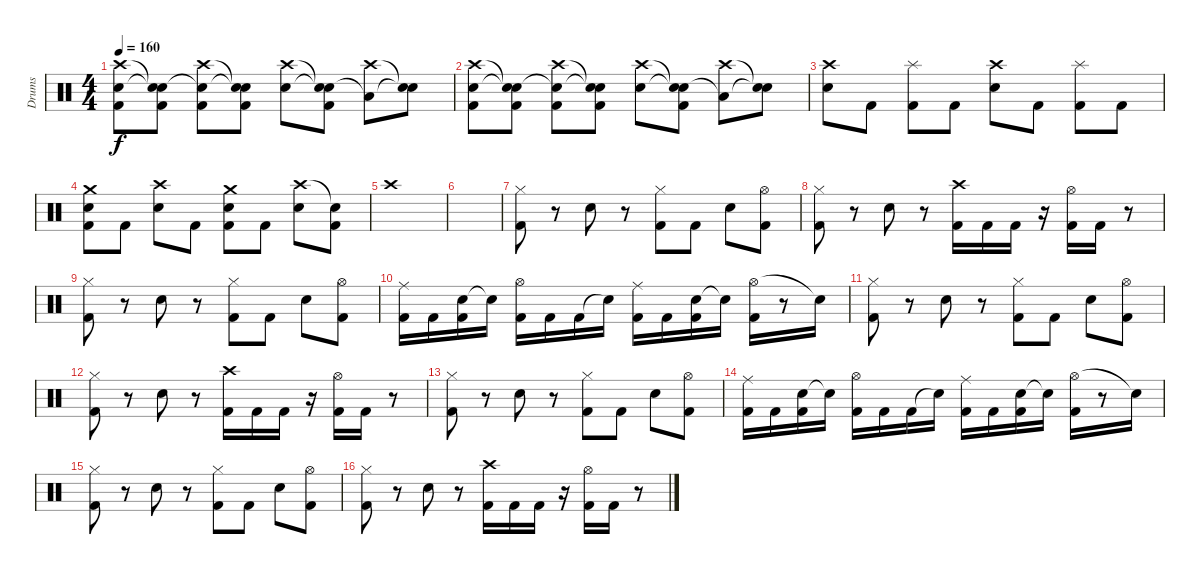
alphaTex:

\track ("Drums" "Drums") {instrument percussion}
\staff {score}
\articulation defaults
\ts (4 4)
\tempo 160
\clef neutral
\ks c
("Crash high (hit)" "Snare (hit) 2" "Kick (hit) 2").8{dy f} ("Snare (hit)"{t} "Snare (hit) 2"{t} "Kick (hit) 2").8 ("Crash high (hit)" "Snare (hit)"{t} "Kick (hit) 2").8 ("Snare (hit)"{t} "Snare (hit)"{t} "Kick (hit) 2").8 ("Crash high (hit)" "Snare (hit) 2").8 ("Snare (hit)"{t} "Snare (hit) 2"{t} "Kick (hit) 2").8 ("Crash high (hit)" "Low Tom (hit)"{t}).8 ("Snare (hit)"{t} "Snare (hit)"{t}).8 |
("Crash high (hit)" "Snare (hit) 2" "Kick (hit) 2").8 ("Snare (hit)"{t} "Snare (hit)"{t} "Kick (hit) 2").8 ("Crash high (hit)" "Snare (hit)"{t} "Kick (hit) 2").8 ("Snare (hit)"{t} "Snare (hit)"{t} "Kick (hit) 2").8 ("Crash high (hit)" "Snare (hit) 2").8 ("Snare (hit)"{t} "Snare (hit)"{t} "Kick (hit) 2").8 ("Crash high (hit)" "Low Tom (hit)"{t}).8 ("Snare (hit)"{t} "Snare (hit)"{t}).8 |
("Crash high (hit)" "Snare (hit) 2").8 "Kick (hit) 2".8 ("Splash (hit)" "Kick (hit) 2").8 "Kick (hit) 2".8 ("Crash high (hit)" "Snare (hit) 2").8 "Kick (hit) 2".8 ("Splash (hit)" "Kick (hit) 2").8 "Kick (hit) 2".8 |
("Crash medium (hit)" "Snare (hit) 2" "Kick (hit) 2").8 "Kick (hit) 2".8 ("Crash high (hit)" "Snare (hit) 2").8 "Kick (hit) 2".8 ("Crash medium (hit)" "Snare (hit) 2" "Kick (hit) 2").8 "Kick (hit) 2".8 ("Crash high (hit)" "Snare (hit) 2").8 ("Snare (hit)"{t} "Kick (hit) 2").8 |
"Crash high (hit)".1 |
|
("Hi-Hat (closed)" "Kick (hit) 2").8 r.8 "Snare (hit) 2".8 r.8 ("Hi-Hat (closed)" "Kick (hit) 2").8 "Kick (hit) 2".8 "Snare (hit) 2".8 ("Hi-Hat (open)" "Kick (hit) 2").8 |
("Hi-Hat (closed)" "Kick (hit) 2").8 r.8 "Snare (hit) 2".8 r.8 ("Crash high (hit)" "Kick (hit) 2").16 "Kick (hit) 2".16 "Kick (hit) 2".16 r.16 ("Hi-Hat (open)" "Kick (hit) 2").16 "Kick (hit) 2".16 r.8 |
("Hi-Hat (closed)" "Kick (hit) 2").8 r.8 "Snare (hit) 2".8 r.8 ("Hi-Hat (closed)" "Kick (hit) 2").8 "Kick (hit) 2".8 "Snare (hit) 2".8 ("Hi-Hat (open)" "Kick (hit) 2").8 |
("Ride (middle)" "Kick (hit) 2").16 "Kick (hit) 2".16 ("Snare (hit) 2" "Kick (hit) 2").16 "Snare (hit)"{t}.16 ("Hi-Hat (open)" "Kick (hit) 2").16 "Kick (hit) 2".16 "Kick (hit) 2".16 "Snare (hit)"{t}.16 ("Ride (middle)" "Kick (hit) 2").16 "Kick (hit) 2".16 ("Snare (hit) 2" "Kick (hit) 2").16 "Snare (hit)"{t}.16 ("Hi-Hat (open)" "Kick (hit) 2").16 r.8 "Snare (hit)"{t}.16 |
("Hi-Hat (closed)" "Kick (hit) 2").8 r.8 "Snare (hit) 2".8 r.8 ("Hi-Hat (closed)" "Kick (hit) 2").8 "Kick (hit) 2".8 "Snare (hit) 2".8 ("Hi-Hat (open)" "Kick (hit) 2").8 |
("Hi-Hat (closed)" "Kick (hit) 2").8 r.8 "Snare (hit) 2".8 r.8 ("Crash high (hit)" "Kick (hit) 2").16 "Kick (hit) 2".16 "Kick (hit) 2".16 r.16 ("Hi-Hat (open)" "Kick (hit) 2").16 "Kick (hit) 2".16 r.8 |
("Hi-Hat (closed)" "Kick (hit) 2").8 r.8 "Snare (hit) 2".8 r.8 ("Hi-Hat (closed)" "Kick (hit) 2").8 "Kick (hit) 2".8 "Snare (hit) 2".8 ("Hi-Hat (open)" "Kick (hit) 2").8 |
("Ride (middle)" "Kick (hit) 2").16 "Kick (hit) 2".16 ("Snare (hit) 2" "Kick (hit) 2").16 "Snare (hit)"{t}.16 ("Hi-Hat (open)" "Kick (hit) 2").16 "Kick (hit) 2".16 "Kick (hit) 2".16 "Snare (hit)"{t}.16 ("Ride (middle)" "Kick (hit) 2").16 "Kick (hit) 2".16 ("Snare (hit) 2" "Kick (hit) 2").16 "Snare (hit)"{t}.16 ("Hi-Hat (open)" "Kick (hit) 2").16 r.8 "Snare (hit)"{t}.16 |
("Hi-Hat (closed)" "Kick (hit) 2").8 r.8 "Snare (hit) 2".8 r.8 ("Hi-Hat (closed)" "Kick (hit) 2").8 "Kick (hit) 2".8 "Snare (hit) 2".8 ("Hi-Hat (open)" "Kick (hit) 2").8 |
("Hi-Hat (closed)" "Kick (hit) 2").8 r.8 "Snare (hit) 2".8 r.8 ("Crash high (hit)" "Kick (hit) 2").16 "Kick (hit) 2".16 "Kick (hit) 2".16 r.16 ("Hi-Hat (open)" "Kick (hit) 2").16 "Kick (hit) 2".16 r.8
